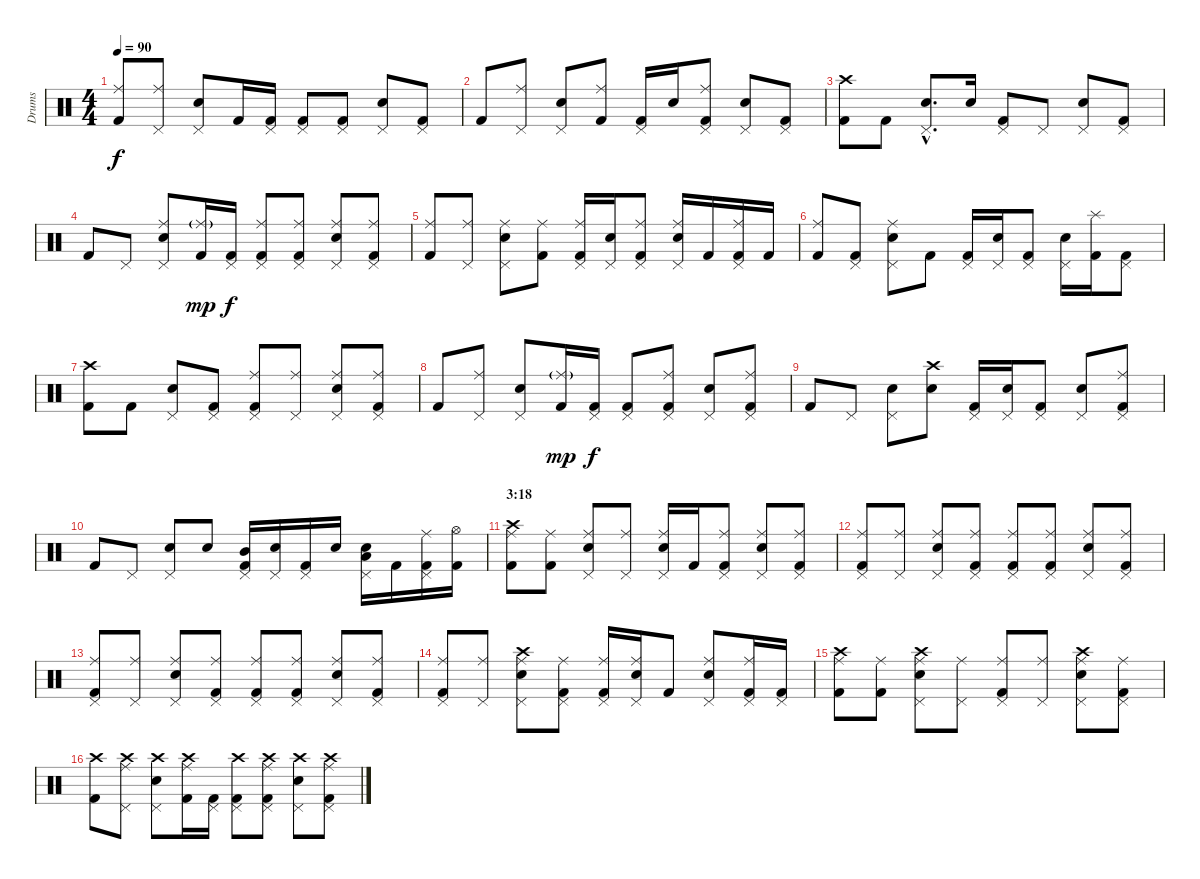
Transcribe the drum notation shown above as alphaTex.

\track ("Drums" "Drums") {instrument percussion}
\staff {score}
\articulation defaults
\ts (4 4)
\tempo 90
\clef neutral
\ks c
("Kick (hit) 2" "Ride (middle)").8{dy f} ("Pedal Hi-Hat (hit)" "Ride (middle)").8 ("Snare (hit) 2" "Pedal Hi-Hat (hit)").8 "Kick (hit) 2".16 ("Kick (hit) 2" "Pedal Hi-Hat (hit)").16 ("Kick (hit) 2" "Pedal Hi-Hat (hit)").8 ("Kick (hit) 2" "Pedal Hi-Hat (hit)").8 ("Snare (hit) 2" "Pedal Hi-Hat (hit)").8 ("Kick (hit) 2" "Pedal Hi-Hat (hit)").8 |
"Kick (hit) 2".8 ("Pedal Hi-Hat (hit)" "Ride (middle)").8 ("Snare (hit) 2" "Pedal Hi-Hat (hit)").8 ("Kick (hit) 2" "Ride (middle)").8 ("Kick (hit) 2" "Pedal Hi-Hat (hit)").16 "Snare (hit) 2".16 ("Kick (hit) 2" "Pedal Hi-Hat (hit)" "Ride (middle)").8 ("Snare (hit) 2" "Pedal Hi-Hat (hit)").8 ("Kick (hit) 2" "Pedal Hi-Hat (hit)").8 |
("Kick (hit) 2" "Crash high (hit)").8 "Kick (hit) 2".8 ("Snare (hit) 2"{hac} "Pedal Hi-Hat (hit)"{hac}).8{d} "Snare (hit) 2".16 ("Kick (hit) 2" "Pedal Hi-Hat (hit)").8 "Pedal Hi-Hat (hit)".8 ("Snare (hit) 2" "Pedal Hi-Hat (hit)").8 ("Kick (hit) 2" "Pedal Hi-Hat (hit)").8 |
"Kick (hit) 2".8 "Pedal Hi-Hat (hit)".8 ("Snare (hit) 2" "Pedal Hi-Hat (hit)" "Ride (middle)").8 ("Kick (hit) 2" "Ride (middle)"{g}).16{dy mp} ("Kick (hit) 2" "Pedal Hi-Hat (hit)").16{dy f} ("Kick (hit) 2" "Pedal Hi-Hat (hit)" "Ride (middle)").8 ("Kick (hit) 2" "Pedal Hi-Hat (hit)" "Ride (middle)").8 ("Snare (hit) 2" "Pedal Hi-Hat (hit)" "Ride (middle)").8 ("Kick (hit) 2" "Pedal Hi-Hat (hit)" "Ride (middle)").8 |
("Kick (hit) 2" "Ride (middle)").8 ("Pedal Hi-Hat (hit)" "Ride (middle)").8 ("Snare (hit) 2" "Pedal Hi-Hat (hit)" "Ride (middle)").8 ("Kick (hit) 2" "Ride (middle)").8 ("Kick (hit) 2" "Pedal Hi-Hat (hit)" "Ride (middle)").16 ("Snare (hit) 2" "Pedal Hi-Hat (hit)").16 ("Kick (hit) 2" "Pedal Hi-Hat (hit)" "Ride (middle)").8 ("Snare (hit) 2" "Pedal Hi-Hat (hit)" "Ride (middle)").16 "Kick (hit) 2".16 ("Kick (hit) 2" "Pedal Hi-Hat (hit)" "Ride (middle)").16 "Kick (hit) 2".16 |
("Kick (hit) 2" "Ride (middle)").8 ("Kick (hit) 2" "Pedal Hi-Hat (hit)").8 ("Snare (hit) 2" "Pedal Hi-Hat (hit)" "Ride (middle)").8 "Kick (hit) 2".8 ("Kick (hit) 2" "Pedal Hi-Hat (hit)").16 ("Snare (hit) 2" "Pedal Hi-Hat (hit)").16 ("Kick (hit) 2" "Pedal Hi-Hat (hit)").8 ("Snare (hit) 2" "Pedal Hi-Hat (hit)").16 ("Kick (hit) 2" "Splash (hit)").16 ("Kick (hit) 2" "Pedal Hi-Hat (hit)").8 |
("Kick (hit) 2" "Crash high (hit)").8 "Kick (hit) 2".8 ("Snare (hit) 2" "Pedal Hi-Hat (hit)").8 ("Kick (hit) 2" "Pedal Hi-Hat (hit)").8 ("Kick (hit) 2" "Pedal Hi-Hat (hit)" "Ride (middle)").8 ("Pedal Hi-Hat (hit)" "Ride (middle)").8 ("Snare (hit) 2" "Pedal Hi-Hat (hit)" "Ride (middle)").8 ("Kick (hit) 2" "Pedal Hi-Hat (hit)" "Ride (middle)").8 |
"Kick (hit) 2".8 ("Pedal Hi-Hat (hit)" "Ride (middle)").8 ("Snare (hit) 2" "Pedal Hi-Hat (hit)").8 ("Kick (hit) 2" "Ride (middle)"{g}).16{dy mp} ("Kick (hit) 2" "Pedal Hi-Hat (hit)").16{dy f} ("Kick (hit) 2" "Pedal Hi-Hat (hit)").8 ("Kick (hit) 2" "Pedal Hi-Hat (hit)" "Ride (middle)").8 ("Snare (hit) 2" "Pedal Hi-Hat (hit)").8 ("Kick (hit) 2" "Pedal Hi-Hat (hit)" "Ride (middle)").8 |
"Kick (hit) 2".8 "Pedal Hi-Hat (hit)".8 ("Snare (hit) 2" "Pedal Hi-Hat (hit)").8 ("Snare (hit) 2" "Crash high (hit)").8 ("Kick (hit) 2" "Pedal Hi-Hat (hit)").16 ("Snare (hit) 2" "Pedal Hi-Hat (hit)").16 ("Kick (hit) 2" "Pedal Hi-Hat (hit)").8 ("Snare (hit) 2" "Pedal Hi-Hat (hit)").8 ("Kick (hit) 2" "Pedal Hi-Hat (hit)" "Ride (middle)").8 |
"Kick (hit) 2".8 "Pedal Hi-Hat (hit)".8 ("Snare (hit) 2" "Pedal Hi-Hat (hit)").8 "Snare (hit) 2".8 ("Kick (hit) 2" "Pedal Hi-Hat (hit)" "Mid Tom (hit)").16 ("Snare (hit) 2" "Pedal Hi-Hat (hit)").16 ("Kick (hit) 2" "Pedal Hi-Hat (hit)").16 "Snare (hit) 2".16 ("Snare (hit) 2" "Pedal Hi-Hat (hit)" "Low Tom (hit)").16 "Kick (hit) 2".16 ("Kick (hit) 2" "Pedal Hi-Hat (hit)" "Ride (middle)").16 ("Kick (hit) 2" "Hi-Hat (open)").16 |
\section ("" "3:18")
("Kick (hit) 2" "Crash high (hit)" "Ride (middle)").8 ("Kick (hit) 2" "Ride (middle)").8 ("Snare (hit) 2" "Pedal Hi-Hat (hit)" "Ride (middle)").8 ("Pedal Hi-Hat (hit)" "Ride (middle)").8 ("Snare (hit) 2" "Pedal Hi-Hat (hit)" "Ride (middle)").16 "Kick (hit) 2".16 ("Kick (hit) 2" "Pedal Hi-Hat (hit)" "Ride (middle)").8 ("Snare (hit) 2" "Pedal Hi-Hat (hit)" "Ride (middle)").8 ("Kick (hit) 2" "Pedal Hi-Hat (hit)" "Ride (middle)").8 |
("Kick (hit) 2" "Pedal Hi-Hat (hit)" "Ride (middle)").8 ("Pedal Hi-Hat (hit)" "Ride (middle)").8 ("Snare (hit) 2" "Pedal Hi-Hat (hit)" "Ride (middle)").8 ("Kick (hit) 2" "Pedal Hi-Hat (hit)" "Ride (middle)").8 ("Kick (hit) 2" "Pedal Hi-Hat (hit)" "Ride (middle)").8 ("Kick (hit) 2" "Pedal Hi-Hat (hit)" "Ride (middle)").8 ("Snare (hit) 2" "Pedal Hi-Hat (hit)" "Ride (middle)").8 ("Kick (hit) 2" "Pedal Hi-Hat (hit)" "Ride (middle)").8 |
("Kick (hit) 2" "Pedal Hi-Hat (hit)" "Ride (middle)").8 ("Pedal Hi-Hat (hit)" "Ride (middle)").8 ("Snare (hit) 2" "Pedal Hi-Hat (hit)" "Ride (middle)").8 ("Kick (hit) 2" "Pedal Hi-Hat (hit)" "Ride (middle)").8 ("Kick (hit) 2" "Pedal Hi-Hat (hit)" "Ride (middle)").8 ("Kick (hit) 2" "Pedal Hi-Hat (hit)" "Ride (middle)").8 ("Snare (hit) 2" "Pedal Hi-Hat (hit)" "Ride (middle)").8 ("Kick (hit) 2" "Pedal Hi-Hat (hit)" "Ride (middle)").8 |
("Kick (hit) 2" "Pedal Hi-Hat (hit)" "Ride (middle)").8 ("Pedal Hi-Hat (hit)" "Ride (middle)").8 ("Snare (hit) 2" "Pedal Hi-Hat (hit)" "Crash high (hit)" "Ride (middle)").8 ("Kick (hit) 2" "Pedal Hi-Hat (hit)" "Ride (middle)").8 ("Kick (hit) 2" "Pedal Hi-Hat (hit)" "Ride (middle)").16 ("Snare (hit) 2" "Pedal Hi-Hat (hit)" "Ride (middle)").16 "Kick (hit) 2".8 ("Snare (hit) 2" "Pedal Hi-Hat (hit)" "Ride (middle)").8 ("Kick (hit) 2" "Pedal Hi-Hat (hit)" "Ride (middle)").16 ("Kick (hit) 2" "Pedal Hi-Hat (hit)").16 |
("Kick (hit) 2" "Crash high (hit)" "Ride (middle)").8 ("Kick (hit) 2" "Ride (middle)").8 ("Snare (hit) 2" "Pedal Hi-Hat (hit)" "Crash high (hit)" "Ride (middle)").8 ("Pedal Hi-Hat (hit)" "Ride (middle)").8 ("Kick (hit) 2" "Pedal Hi-Hat (hit)" "Ride (middle)").8 ("Pedal Hi-Hat (hit)" "Ride (middle)").8 ("Snare (hit) 2" "Pedal Hi-Hat (hit)" "Crash high (hit)" "Ride (middle)").8 ("Kick (hit) 2" "Pedal Hi-Hat (hit)" "Ride (middle)").8 |
("Kick (hit) 2" "Crash high (hit)").8 ("Pedal Hi-Hat (hit)" "Crash high (hit)" "Ride (middle)").8 ("Snare (hit) 2" "Pedal Hi-Hat (hit)" "Crash high (hit)").8 ("Kick (hit) 2" "Crash high (hit)" "Ride (middle)").16 ("Kick (hit) 2" "Pedal Hi-Hat (hit)").16 ("Kick (hit) 2" "Pedal Hi-Hat (hit)" "Crash high (hit)").8 ("Kick (hit) 2" "Pedal Hi-Hat (hit)" "Crash high (hit)" "Ride (middle)").8 ("Snare (hit) 2" "Pedal Hi-Hat (hit)" "Crash high (hit)").8 ("Kick (hit) 2" "Pedal Hi-Hat (hit)" "Crash high (hit)" "Ride (middle)").8
